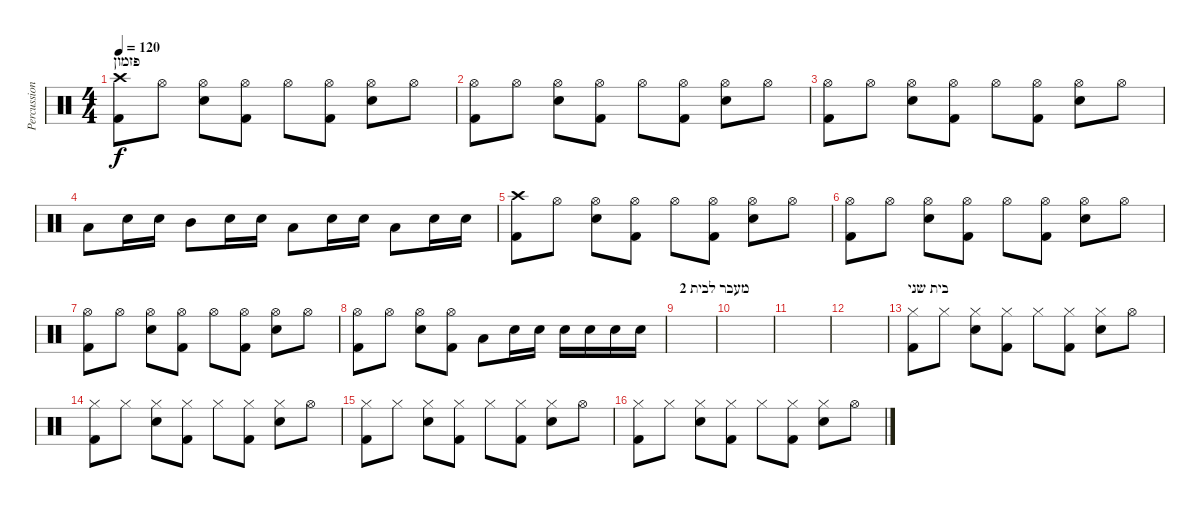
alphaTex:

\track ("Percussion" "Percussion") {instrument percussion}
\staff {score}
\articulation defaults
\ts (4 4)
\section ("" "פזמון")
\tempo 120
\clef neutral
\ks c
("Crash high (hit)" "Kick (hit) 2").8{dy f} "Hi-Hat (open)".8 ("Hi-Hat (open)" "Electric Snare (hit)").8 ("Hi-Hat (open)" "Kick (hit) 2").8 "Hi-Hat (open)".8 ("Hi-Hat (open)" "Kick (hit) 2").8 ("Hi-Hat (open)" "Electric Snare (hit)").8 "Hi-Hat (open)".8 |
("Hi-Hat (open)" "Kick (hit) 2").8 "Hi-Hat (open)".8 ("Hi-Hat (open)" "Electric Snare (hit)").8 ("Hi-Hat (open)" "Kick (hit) 2").8 "Hi-Hat (open)".8 ("Hi-Hat (open)" "Kick (hit) 2").8 ("Hi-Hat (open)" "Electric Snare (hit)").8 "Hi-Hat (open)".8 |
("Hi-Hat (open)" "Kick (hit) 2").8 "Hi-Hat (open)".8 ("Hi-Hat (open)" "Electric Snare (hit)").8 ("Hi-Hat (open)" "Kick (hit) 2").8 "Hi-Hat (open)".8 ("Hi-Hat (open)" "Kick (hit) 2").8 ("Hi-Hat (open)" "Electric Snare (hit)").8 "Hi-Hat (open)".8 |
"Low Tom (hit)".8 "Electric Snare (hit)".16 "Electric Snare (hit)".16 "Mid Tom (hit)".8 "Electric Snare (hit)".16 "Electric Snare (hit)".16 "Low Floor Tom (hit)".8 "Electric Snare (hit)".16 "Electric Snare (hit)".16 "Low Tom (hit)".8 "Electric Snare (hit)".16 "Electric Snare (hit)".16 |
("Crash high (hit)" "Kick (hit) 2").8 "Hi-Hat (open)".8 ("Hi-Hat (open)" "Electric Snare (hit)").8 ("Hi-Hat (open)" "Kick (hit) 2").8 "Hi-Hat (open)".8 ("Hi-Hat (open)" "Kick (hit) 2").8 ("Hi-Hat (open)" "Electric Snare (hit)").8 "Hi-Hat (open)".8 |
("Hi-Hat (open)" "Kick (hit) 2").8 "Hi-Hat (open)".8 ("Hi-Hat (open)" "Electric Snare (hit)").8 ("Hi-Hat (open)" "Kick (hit) 2").8 "Hi-Hat (open)".8 ("Hi-Hat (open)" "Kick (hit) 2").8 ("Hi-Hat (open)" "Electric Snare (hit)").8 "Hi-Hat (open)".8 |
("Hi-Hat (open)" "Kick (hit) 2").8 "Hi-Hat (open)".8 ("Hi-Hat (open)" "Electric Snare (hit)").8 ("Hi-Hat (open)" "Kick (hit) 2").8 "Hi-Hat (open)".8 ("Hi-Hat (open)" "Kick (hit) 2").8 ("Hi-Hat (open)" "Electric Snare (hit)").8 "Hi-Hat (open)".8 |
("Hi-Hat (open)" "Kick (hit) 2").8 "Hi-Hat (open)".8 ("Hi-Hat (open)" "Electric Snare (hit)").8 ("Hi-Hat (open)" "Kick (hit) 2").8 "Low Tom (hit)".8 "Electric Snare (hit)".16 "Electric Snare (hit)".16 "Electric Snare (hit)".16 "Electric Snare (hit)".16 "Electric Snare (hit)".16 "Electric Snare (hit)".16 |
\section ("" "מעבר לבית 2")
|
|
|
|
\section ("" "בית שני")
("Hi-Hat (closed)" "Kick (hit) 2").8 "Hi-Hat (closed)".8 ("Hi-Hat (closed)" "Electric Snare (hit)").8 ("Hi-Hat (closed)" "Kick (hit) 2").8 "Hi-Hat (closed)".8 ("Hi-Hat (closed)" "Kick (hit) 2").8 ("Hi-Hat (closed)" "Electric Snare (hit)").8 "Hi-Hat (open)".8 |
("Hi-Hat (closed)" "Kick (hit) 2").8 "Hi-Hat (closed)".8 ("Hi-Hat (closed)" "Electric Snare (hit)").8 ("Hi-Hat (closed)" "Kick (hit) 2").8 "Hi-Hat (closed)".8 ("Hi-Hat (closed)" "Kick (hit) 2").8 ("Hi-Hat (closed)" "Electric Snare (hit)").8 "Hi-Hat (open)".8 |
("Hi-Hat (closed)" "Kick (hit) 2").8 "Hi-Hat (closed)".8 ("Hi-Hat (closed)" "Electric Snare (hit)").8 ("Hi-Hat (closed)" "Kick (hit) 2").8 "Hi-Hat (closed)".8 ("Hi-Hat (closed)" "Kick (hit) 2").8 ("Hi-Hat (closed)" "Electric Snare (hit)").8 "Hi-Hat (open)".8 |
("Hi-Hat (closed)" "Kick (hit) 2").8 "Hi-Hat (closed)".8 ("Hi-Hat (closed)" "Electric Snare (hit)").8 ("Hi-Hat (closed)" "Kick (hit) 2").8 "Hi-Hat (closed)".8 ("Hi-Hat (closed)" "Kick (hit) 2").8 ("Hi-Hat (closed)" "Electric Snare (hit)").8 "Hi-Hat (open)".8
